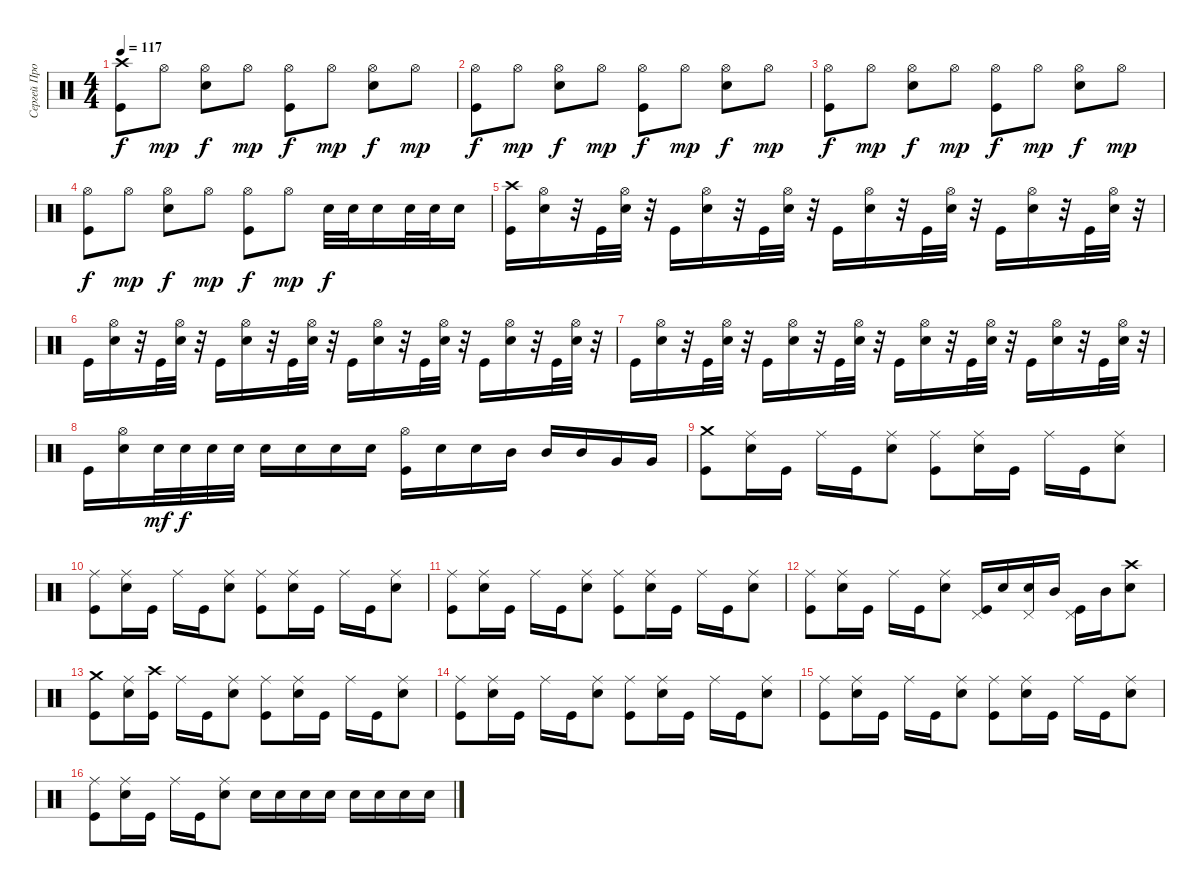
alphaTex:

\track ("Сергей Прокофьев" "Сергей Про") {instrument percussion}
\staff {score}
\articulation defaults
\ts (4 4)
\tempo 117
\clef neutral
\ks c
("Crash high (hit)" "Kick (hit)").8{dy f} "Hi-Hat (open)".8{dy mp} ("Hi-Hat (open)" "Electric Snare (hit)").8{dy f} "Hi-Hat (open)".8{dy mp} ("Hi-Hat (open)" "Kick (hit)").8{dy f} "Hi-Hat (open)".8{dy mp} ("Hi-Hat (open)" "Electric Snare (hit)").8{dy f} "Hi-Hat (open)".8{dy mp} |
("Hi-Hat (open)" "Kick (hit)").8{dy f} "Hi-Hat (open)".8{dy mp} ("Hi-Hat (open)" "Electric Snare (hit)").8{dy f} "Hi-Hat (open)".8{dy mp} ("Hi-Hat (open)" "Kick (hit)").8{dy f} "Hi-Hat (open)".8{dy mp} ("Hi-Hat (open)" "Electric Snare (hit)").8{dy f} "Hi-Hat (open)".8{dy mp} |
("Hi-Hat (open)" "Kick (hit)").8{dy f} "Hi-Hat (open)".8{dy mp} ("Hi-Hat (open)" "Electric Snare (hit)").8{dy f} "Hi-Hat (open)".8{dy mp} ("Hi-Hat (open)" "Kick (hit)").8{dy f} "Hi-Hat (open)".8{dy mp} ("Hi-Hat (open)" "Electric Snare (hit)").8{dy f} "Hi-Hat (open)".8{dy mp} |
("Hi-Hat (open)" "Kick (hit)").8{dy f} "Hi-Hat (open)".8{dy mp} ("Hi-Hat (open)" "Electric Snare (hit)").8{dy f} "Hi-Hat (open)".8{dy mp} ("Hi-Hat (open)" "Kick (hit)").8{dy f} "Hi-Hat (open)".8{dy mp} "Electric Snare (hit)".32{dy f} "Electric Snare (hit)".32 "Electric Snare (hit)".16 "Electric Snare (hit)".32 "Electric Snare (hit)".32 "Electric Snare (hit)".16 |
("Crash high (hit)" "Kick (hit)").16 ("Hi-Hat (open)" "Electric Snare (hit)").16 r.32 "Kick (hit)".32 ("Hi-Hat (open)" "Electric Snare (hit)").32 r.32 "Kick (hit)".16 ("Hi-Hat (open)" "Electric Snare (hit)").16 r.32 "Kick (hit)".32 ("Hi-Hat (open)" "Electric Snare (hit)").32 r.32 "Kick (hit)".16 ("Hi-Hat (open)" "Electric Snare (hit)").16 r.32 "Kick (hit)".32 ("Hi-Hat (open)" "Electric Snare (hit)").32 r.32 "Kick (hit)".16 ("Hi-Hat (open)" "Electric Snare (hit)").16 r.32 "Kick (hit)".32 ("Hi-Hat (open)" "Electric Snare (hit)").32 r.32 |
"Kick (hit)".16 ("Hi-Hat (open)" "Electric Snare (hit)").16 r.32 "Kick (hit)".32 ("Hi-Hat (open)" "Electric Snare (hit)").32 r.32 "Kick (hit)".16 ("Hi-Hat (open)" "Electric Snare (hit)").16 r.32 "Kick (hit)".32 ("Hi-Hat (open)" "Electric Snare (hit)").32 r.32 "Kick (hit)".16 ("Hi-Hat (open)" "Electric Snare (hit)").16 r.32 "Kick (hit)".32 ("Hi-Hat (open)" "Electric Snare (hit)").32 r.32 "Kick (hit)".16 ("Hi-Hat (open)" "Electric Snare (hit)").16 r.32 "Kick (hit)".32 ("Hi-Hat (open)" "Electric Snare (hit)").32 r.32 |
"Kick (hit)".16 ("Hi-Hat (open)" "Electric Snare (hit)").16 r.32 "Kick (hit)".32 ("Hi-Hat (open)" "Electric Snare (hit)").32 r.32 "Kick (hit)".16 ("Hi-Hat (open)" "Electric Snare (hit)").16 r.32 "Kick (hit)".32 ("Hi-Hat (open)" "Electric Snare (hit)").32 r.32 "Kick (hit)".16 ("Hi-Hat (open)" "Electric Snare (hit)").16 r.32 "Kick (hit)".32 ("Hi-Hat (open)" "Electric Snare (hit)").32 r.32 "Kick (hit)".16 ("Hi-Hat (open)" "Electric Snare (hit)").16 r.32 "Kick (hit)".32 ("Hi-Hat (open)" "Electric Snare (hit)").32 r.32 |
"Kick (hit)".16 ("Hi-Hat (open)" "Electric Snare (hit)").16 "Electric Snare (hit)".32{dy mf} "Electric Snare (hit)".32{dy f} "Electric Snare (hit)".32 "Electric Snare (hit)".32 "Electric Snare (hit)".16 "Electric Snare (hit)".16 "Electric Snare (hit)".16 "Electric Snare (hit)".16 ("Hi-Hat (open)" "Kick (hit)").16 "Electric Snare (hit)".16 "Electric Snare (hit)".16 "Mid Tom (hit)".16 "Mid Tom (hit)".16 "Mid Tom (hit)".16 "Very Low Tom (hit)".16 "Very Low Tom (hit)".16 |
("Crash medium (hit)" "Kick (hit)").8 ("Ride (middle)" "Electric Snare (hit)").16 "Kick (hit)".16 "Ride (middle)".16 "Kick (hit)".16 ("Ride (middle)" "Electric Snare (hit)").8 ("Ride (middle)" "Kick (hit)").8 ("Ride (middle)" "Electric Snare (hit)").16 "Kick (hit)".16 "Ride (middle)".16 "Kick (hit)".16 ("Ride (middle)" "Electric Snare (hit)").8 |
("Ride (middle)" "Kick (hit)").8 ("Ride (middle)" "Electric Snare (hit)").16 "Kick (hit)".16 "Ride (middle)".16 "Kick (hit)".16 ("Ride (middle)" "Electric Snare (hit)").8 ("Ride (middle)" "Kick (hit)").8 ("Ride (middle)" "Electric Snare (hit)").16 "Kick (hit)".16 "Ride (middle)".16 "Kick (hit)".16 ("Ride (middle)" "Electric Snare (hit)").8 |
("Ride (middle)" "Kick (hit)").8 ("Ride (middle)" "Electric Snare (hit)").16 "Kick (hit)".16 "Ride (middle)".16 "Kick (hit)".16 ("Ride (middle)" "Electric Snare (hit)").8 ("Ride (middle)" "Kick (hit)").8 ("Ride (middle)" "Electric Snare (hit)").16 "Kick (hit)".16 "Ride (middle)".16 "Kick (hit)".16 ("Ride (middle)" "Electric Snare (hit)").8 |
("Ride (middle)" "Kick (hit)").8 ("Ride (middle)" "Electric Snare (hit)").16 "Kick (hit)".16 "Ride (middle)".16 "Kick (hit)".16 ("Ride (middle)" "Electric Snare (hit)").8 ("Pedal Hi-Hat (hit)" "Kick (hit)").16 "Electric Snare (hit)".16 ("Pedal Hi-Hat (hit)" "Electric Snare (hit)").16 "Mid Tom (hit)".16 ("Pedal Hi-Hat (hit)" "Kick (hit)").16 "Mid Tom (hit)".16 ("Crash high (hit)" "Electric Snare (hit)").8 |
("Crash medium (hit)" "Kick (hit)").8 ("Ride (middle)" "Electric Snare (hit)").16 ("Crash high (hit)" "Kick (hit)").16 "Ride (middle)".16 "Kick (hit)".16 ("Ride (middle)" "Electric Snare (hit)").8 ("Ride (middle)" "Kick (hit)").8 ("Ride (middle)" "Electric Snare (hit)").16 "Kick (hit)".16 "Ride (middle)".16 "Kick (hit)".16 ("Ride (middle)" "Electric Snare (hit)").8 |
("Ride (middle)" "Kick (hit)").8 ("Ride (middle)" "Electric Snare (hit)").16 "Kick (hit)".16 "Ride (middle)".16 "Kick (hit)".16 ("Ride (middle)" "Electric Snare (hit)").8 ("Ride (middle)" "Kick (hit)").8 ("Ride (middle)" "Electric Snare (hit)").16 "Kick (hit)".16 "Ride (middle)".16 "Kick (hit)".16 ("Ride (middle)" "Electric Snare (hit)").8 |
("Ride (middle)" "Kick (hit)").8 ("Ride (middle)" "Electric Snare (hit)").16 "Kick (hit)".16 "Ride (middle)".16 "Kick (hit)".16 ("Ride (middle)" "Electric Snare (hit)").8 ("Ride (middle)" "Kick (hit)").8 ("Ride (middle)" "Electric Snare (hit)").16 "Kick (hit)".16 "Ride (middle)".16 "Kick (hit)".16 ("Ride (middle)" "Electric Snare (hit)").8 |
("Ride (middle)" "Kick (hit)").8 ("Ride (middle)" "Electric Snare (hit)").16 "Kick (hit)".16 "Ride (middle)".16 "Kick (hit)".16 ("Ride (middle)" "Electric Snare (hit)").8 "Electric Snare (hit)".16 "Electric Snare (hit)".16 "Electric Snare (hit)".16 "Electric Snare (hit)".16 "Electric Snare (hit)".16 "Electric Snare (hit)".16 "Electric Snare (hit)".16 "Electric Snare (hit)".16
